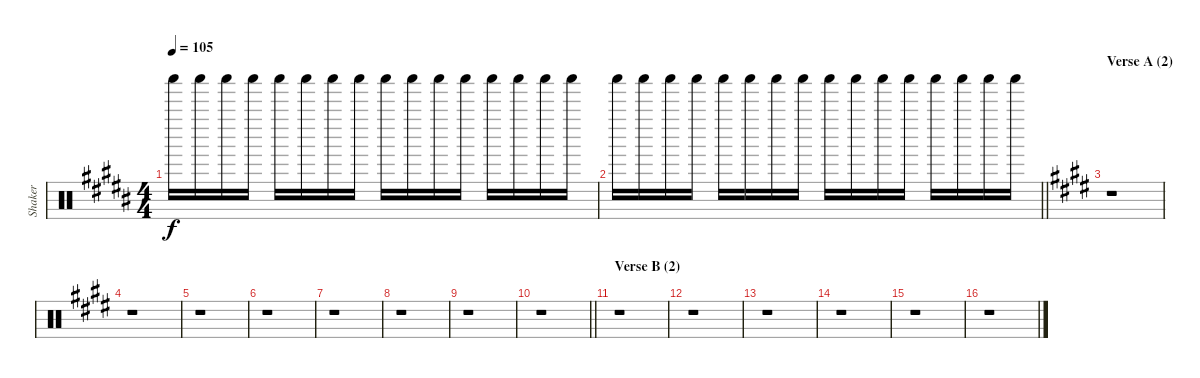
\track ("Shaker" "Shaker") {instrument percussion}
\staff {score}
\articulation defaults
\ts (4 4)
\tempo 105
\clef neutral
\ks g#minor "Shaker (hit)".16{dy f} "Shaker (hit)".16 "Shaker (hit)".16 "Shaker (hit)".16 "Shaker (hit)".16 "Shaker (hit)".16 "Shaker (hit)".16 "Shaker (hit)".16 "Shaker (hit)".16 "Shaker (hit)".16 "Shaker (hit)".16 "Shaker (hit)".16 "Shaker (hit)".16 "Shaker (hit)".16 "Shaker (hit)".16 "Shaker (hit)".16
|
\barLineRight lightlight "Shaker (hit)".16 "Shaker (hit)".16 "Shaker (hit)".16 "Shaker (hit)".16 "Shaker (hit)".16 "Shaker (hit)".16 "Shaker (hit)".16 "Shaker (hit)".16 "Shaker (hit)".16 "Shaker (hit)".16 "Shaker (hit)".16 "Shaker (hit)".16 "Shaker (hit)".16 "Shaker (hit)".16 "Shaker (hit)".16 "Shaker (hit)".16
|
\section ("" "Verse A (2)")
\ks e
r.1 |
r.1 |
r.1 |
r.1 |
r.1 |
r.1 |
r.1 |
\barLineRight lightlight
r.1 |
\section ("" "Verse B (2)")
r.1 |
r.1 |
r.1 |
r.1 |
r.1 |
r.1
